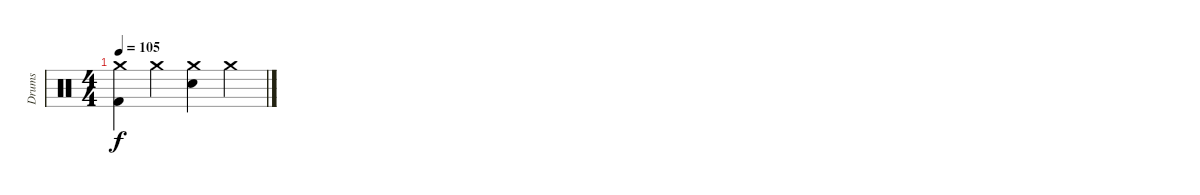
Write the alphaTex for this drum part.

\track ("Drums" "Drums") {instrument percussion}
\staff {score}
\articulation defaults
\ts (4 4)
\tempo 105
\clef neutral
\ks c
("Crash medium (hit)" "Kick (hit) 2").4{dy f} "Crash medium (hit)".4 ("Crash medium (hit)" "Electric Snare (hit)").4 "Crash medium (hit)".4
